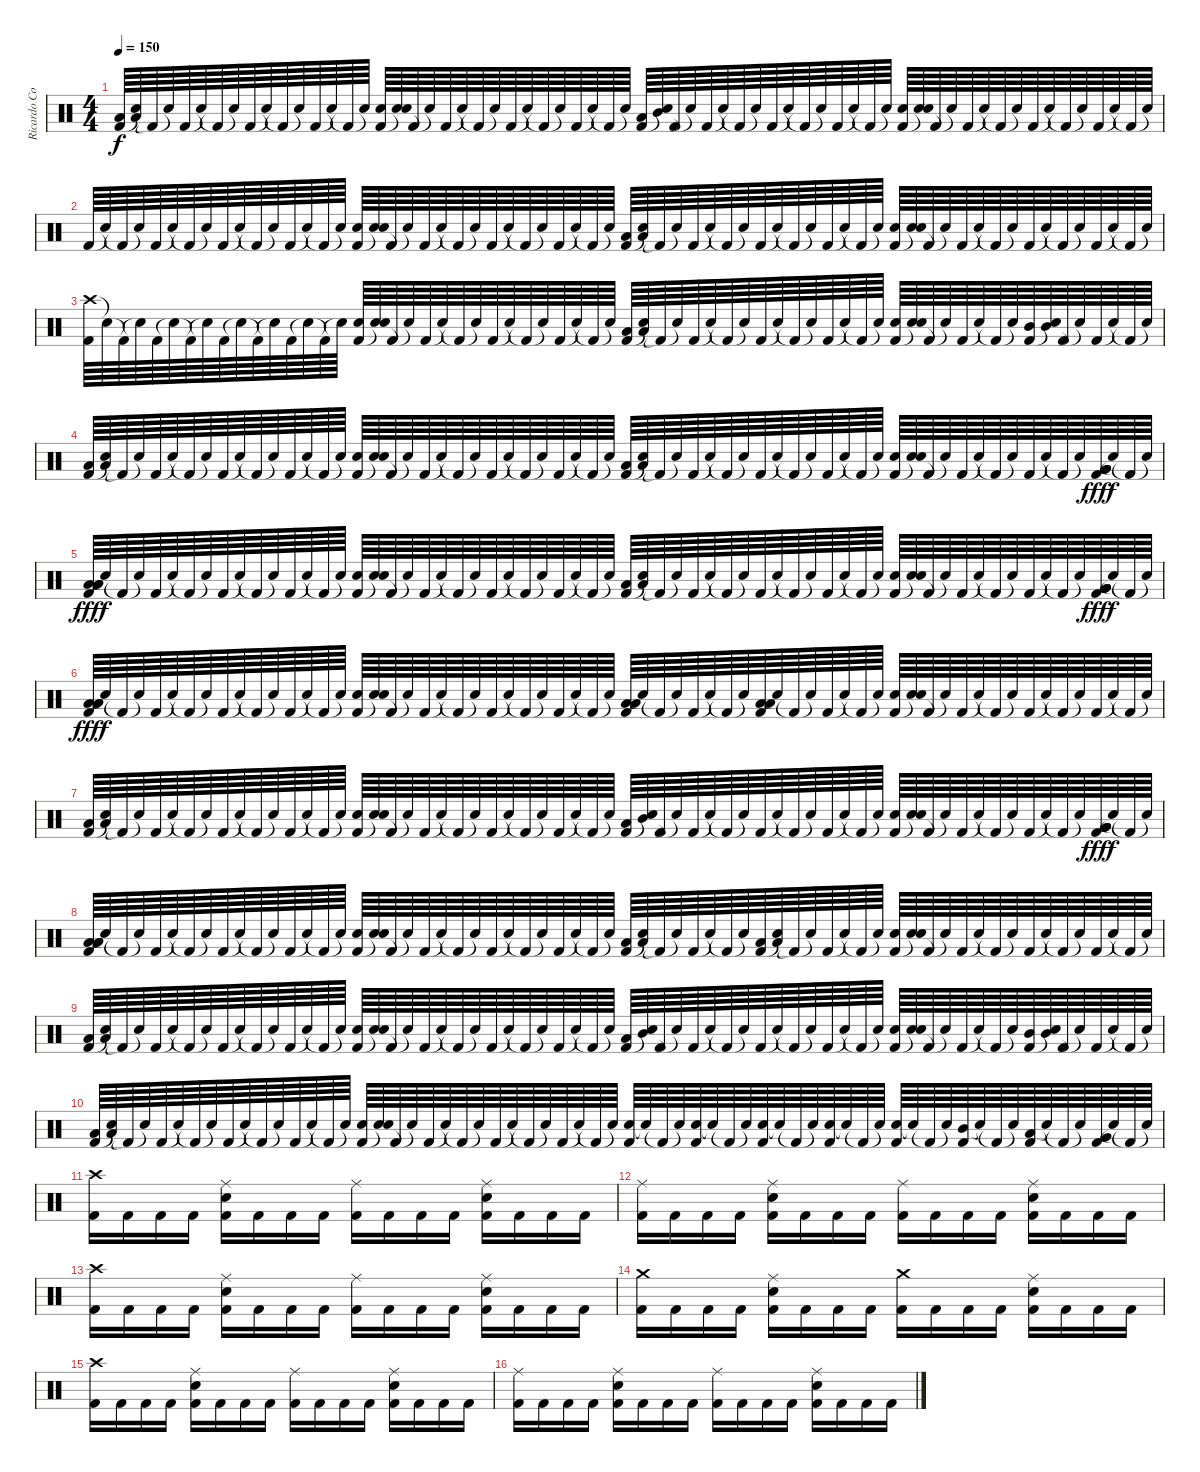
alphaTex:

\track ("Ricardo Confessori" "Ricardo Co") {instrument percussion}
\staff {score}
\articulation defaults
\ts (4 4)
\tempo 150
\clef neutral
\ks c
("Low Tom (hit)" "Kick (hit) 2").64{dy f} ("Low Tom (hit)" "Snare (hit)"{t}).64 "Kick (hit) 2"{t}.64 "Snare (hit)"{t}.64 "Kick (hit) 2".64 "Snare (hit)"{t}.64 "Kick (hit) 2"{t}.64 "Snare (hit)"{t}.64 "Kick (hit) 2".64 "Snare (hit)"{t}.64 "Kick (hit) 2"{t}.64 "Snare (hit)"{t}.64 "Kick (hit) 2".64 "Snare (hit)"{t}.64 "Kick (hit) 2"{t}.64 "Snare (hit)"{t}.64 ("Electric Snare (hit)" "Kick (hit) 2").64 ("Electric Snare (hit)" "Snare (hit)"{t}).64 "Kick (hit) 2"{t}.64 "Snare (hit)"{t}.64 "Kick (hit) 2".64 "Snare (hit)"{t}.64 "Kick (hit) 2"{t}.64 "Snare (hit)"{t}.64 "Kick (hit) 2".64 "Snare (hit)"{t}.64 "Kick (hit) 2"{t}.64 "Snare (hit)"{t}.64 "Kick (hit) 2".64 "Snare (hit)"{t}.64 "Kick (hit) 2"{t}.64 "Snare (hit)"{t}.64 ("Low Tom (hit)" "Kick (hit) 2").64 ("Mid Tom (hit)" "Snare (hit)"{t}).64 "Kick (hit) 2"{t}.64 "Snare (hit)"{t}.64 "Kick (hit) 2".64 "Snare (hit)"{t}.64 "Kick (hit) 2"{t}.64 "Snare (hit)"{t}.64 "Kick (hit) 2".64 "Snare (hit)"{t}.64 "Kick (hit) 2"{t}.64 "Snare (hit)"{t}.64 "Kick (hit) 2".64 "Snare (hit)"{t}.64 "Kick (hit) 2"{t}.64 "Snare (hit)"{t}.64 ("Electric Snare (hit)" "Kick (hit) 2").64 ("Electric Snare (hit)" "Snare (hit)"{t}).64 "Kick (hit) 2"{t}.64 "Snare (hit)"{t}.64 "Kick (hit) 2".64 "Snare (hit)"{t}.64 "Kick (hit) 2"{t}.64 "Snare (hit)"{t}.64 "Kick (hit) 2".64 "Snare (hit)"{t}.64 "Kick (hit) 2"{t}.64 "Snare (hit)"{t}.64 "Kick (hit) 2".64 "Snare (hit)"{t}.64 "Kick (hit) 2"{t}.64 "Snare (hit)"{t}.64 |
"Kick (hit) 2".64 "Snare (hit)"{t}.64 "Kick (hit) 2"{t}.64 "Snare (hit)"{t}.64 "Kick (hit) 2".64 "Snare (hit)"{t}.64 "Kick (hit) 2"{t}.64 "Snare (hit)"{t}.64 "Kick (hit) 2".64 "Snare (hit)"{t}.64 "Kick (hit) 2"{t}.64 "Snare (hit)"{t}.64 "Kick (hit) 2".64 "Snare (hit)"{t}.64 "Kick (hit) 2"{t}.64 "Snare (hit)"{t}.64 ("Electric Snare (hit)" "Kick (hit) 2").64 ("Electric Snare (hit)" "Snare (hit)"{t}).64 "Kick (hit) 2"{t}.64 "Snare (hit)"{t}.64 "Kick (hit) 2".64 "Snare (hit)"{t}.64 "Kick (hit) 2"{t}.64 "Snare (hit)"{t}.64 "Kick (hit) 2".64 "Snare (hit)"{t}.64 "Kick (hit) 2"{t}.64 "Snare (hit)"{t}.64 "Kick (hit) 2".64 "Snare (hit)"{t}.64 "Kick (hit) 2"{t}.64 "Snare (hit)"{t}.64 ("Low Tom (hit)" "Kick (hit) 2").64 ("Low Tom (hit)" "Snare (hit)"{t}).64 "Kick (hit) 2"{t}.64 "Snare (hit)"{t}.64 "Kick (hit) 2".64 "Snare (hit)"{t}.64 "Kick (hit) 2"{t}.64 "Snare (hit)"{t}.64 "Kick (hit) 2".64 "Snare (hit)"{t}.64 "Kick (hit) 2"{t}.64 "Snare (hit)"{t}.64 "Kick (hit) 2".64 "Snare (hit)"{t}.64 "Kick (hit) 2"{t}.64 "Snare (hit)"{t}.64 ("Electric Snare (hit)" "Kick (hit) 2").64 ("Electric Snare (hit)" "Snare (hit)"{t}).64 "Kick (hit) 2"{t}.64 "Snare (hit)"{t}.64 "Kick (hit) 2".64 "Snare (hit)"{t}.64 "Kick (hit) 2"{t}.64 "Snare (hit)"{t}.64 "Kick (hit) 2".64 "Snare (hit)"{t}.64 "Kick (hit) 2"{t}.64 "Snare (hit)"{t}.64 "Kick (hit) 2".64 "Snare (hit)"{t}.64 "Kick (hit) 2"{t}.64 "Snare (hit)"{t}.64 |
("Crash high (hit)" "Kick (hit) 2").64 "Snare (hit)"{t}.64 "Kick (hit) 2"{t}.64 "Snare (hit)"{t}.64 "Kick (hit) 2".64 "Snare (hit)"{t}.64 "Kick (hit) 2"{t}.64 "Snare (hit)"{t}.64 "Kick (hit) 2".64 "Snare (hit)"{t}.64 "Kick (hit) 2"{t}.64 "Snare (hit)"{t}.64 "Kick (hit) 2".64 "Snare (hit)"{t}.64 "Kick (hit) 2"{t}.64 "Snare (hit)"{t}.64 ("Electric Snare (hit)" "Kick (hit) 2").64 ("Electric Snare (hit)" "Snare (hit)"{t}).64 "Kick (hit) 2"{t}.64 "Snare (hit)"{t}.64 "Kick (hit) 2".64 "Snare (hit)"{t}.64 "Kick (hit) 2"{t}.64 "Snare (hit)"{t}.64 "Kick (hit) 2".64 "Snare (hit)"{t}.64 "Kick (hit) 2"{t}.64 "Snare (hit)"{t}.64 "Kick (hit) 2".64 "Snare (hit)"{t}.64 "Kick (hit) 2"{t}.64 "Snare (hit)"{t}.64 ("Low Tom (hit)" "Kick (hit) 2").64 ("Low Tom (hit)" "Snare (hit)"{t}).64 "Kick (hit) 2"{t}.64 "Snare (hit)"{t}.64 "Kick (hit) 2".64 "Snare (hit)"{t}.64 "Kick (hit) 2"{t}.64 "Snare (hit)"{t}.64 "Kick (hit) 2".64 "Snare (hit)"{t}.64 "Kick (hit) 2"{t}.64 "Snare (hit)"{t}.64 "Kick (hit) 2".64 "Snare (hit)"{t}.64 "Kick (hit) 2"{t}.64 "Snare (hit)"{t}.64 ("Electric Snare (hit)" "Kick (hit) 2").64 ("Electric Snare (hit)" "Snare (hit)"{t}).64 "Kick (hit) 2"{t}.64 "Snare (hit)"{t}.64 "Kick (hit) 2".64 "Snare (hit)"{t}.64 "Kick (hit) 2"{t}.64 "Snare (hit)"{t}.64 ("Mid Tom (hit)" "Kick (hit) 2").64 ("Mid Tom (hit)" "Snare (hit)"{t}).64 "Kick (hit) 2"{t}.64 "Snare (hit)"{t}.64 "Kick (hit) 2".64 "Snare (hit)"{t}.64 "Kick (hit) 2"{t}.64 "Snare (hit)"{t}.64 |
("Low Tom (hit)" "Kick (hit) 2").64 ("Low Tom (hit)" "Snare (hit)"{t}).64 "Kick (hit) 2"{t}.64 "Snare (hit)"{t}.64 "Kick (hit) 2".64 "Snare (hit)"{t}.64 "Kick (hit) 2"{t}.64 "Snare (hit)"{t}.64 "Kick (hit) 2".64 "Snare (hit)"{t}.64 "Kick (hit) 2"{t}.64 "Snare (hit)"{t}.64 "Kick (hit) 2".64 "Snare (hit)"{t}.64 "Kick (hit) 2"{t}.64 "Snare (hit)"{t}.64 ("Electric Snare (hit)" "Kick (hit) 2").64 ("Electric Snare (hit)" "Snare (hit)"{t}).64 "Kick (hit) 2"{t}.64 "Snare (hit)"{t}.64 "Kick (hit) 2".64 "Snare (hit)"{t}.64 "Kick (hit) 2"{t}.64 "Snare (hit)"{t}.64 "Kick (hit) 2".64 "Snare (hit)"{t}.64 "Kick (hit) 2"{t}.64 "Snare (hit)"{t}.64 "Kick (hit) 2".64 "Snare (hit)"{t}.64 "Kick (hit) 2"{t}.64 "Snare (hit)"{t}.64 ("Low Tom (hit)" "Kick (hit) 2").64 ("Low Tom (hit)" "Snare (hit)"{t}).64 "Kick (hit) 2"{t}.64 "Snare (hit)"{t}.64 "Kick (hit) 2".64 "Snare (hit)"{t}.64 "Kick (hit) 2"{t}.64 "Snare (hit)"{t}.64 "Kick (hit) 2".64 "Snare (hit)"{t}.64 "Kick (hit) 2"{t}.64 "Snare (hit)"{t}.64 "Kick (hit) 2".64 "Snare (hit)"{t}.64 "Kick (hit) 2"{t}.64 "Snare (hit)"{t}.64 ("Electric Snare (hit)" "Kick (hit) 2").64 ("Electric Snare (hit)" "Snare (hit)"{t}).64 "Kick (hit) 2"{t}.64 "Snare (hit)"{t}.64 "Kick (hit) 2".64 "Snare (hit)"{t}.64 "Kick (hit) 2"{t}.64 "Snare (hit)"{t}.64 "Kick (hit) 2".64 "Snare (hit)"{t}.64 "Kick (hit) 2"{t}.64 "Snare (hit)"{t}.64 ("Very Low Tom (hit)" "Very Low Tom (hit)" "Very Low Tom (hit)" "Kick (hit) 2").64{dy fff} "Snare (hit)"{t}.64{dy f} "Kick (hit) 2"{t}.64 "Snare (hit)"{t}.64 |
("Low Floor Tom (hit)" "Low Floor Tom (hit)" "Low Floor Tom (hit)" "Kick (hit) 2").64{dy fff} "Snare (hit)"{t}.64{dy f} "Kick (hit) 2"{t}.64 "Snare (hit)"{t}.64 "Kick (hit) 2".64 "Snare (hit)"{t}.64 "Kick (hit) 2"{t}.64 "Snare (hit)"{t}.64 "Kick (hit) 2".64 "Snare (hit)"{t}.64 "Kick (hit) 2"{t}.64 "Snare (hit)"{t}.64 "Kick (hit) 2".64 "Snare (hit)"{t}.64 "Kick (hit) 2"{t}.64 "Snare (hit)"{t}.64 ("Electric Snare (hit)" "Kick (hit) 2").64 ("Electric Snare (hit)" "Snare (hit)"{t}).64 "Kick (hit) 2"{t}.64 "Snare (hit)"{t}.64 "Kick (hit) 2".64 "Snare (hit)"{t}.64 "Kick (hit) 2"{t}.64 "Snare (hit)"{t}.64 "Kick (hit) 2".64 "Snare (hit)"{t}.64 "Kick (hit) 2"{t}.64 "Snare (hit)"{t}.64 "Kick (hit) 2".64 "Snare (hit)"{t}.64 "Kick (hit) 2"{t}.64 "Snare (hit)"{t}.64 ("Low Tom (hit)" "Kick (hit) 2").64 ("Low Tom (hit)" "Snare (hit)"{t}).64 "Kick (hit) 2"{t}.64 "Snare (hit)"{t}.64 "Kick (hit) 2".64 "Snare (hit)"{t}.64 "Kick (hit) 2"{t}.64 "Snare (hit)"{t}.64 "Kick (hit) 2".64 "Snare (hit)"{t}.64 "Kick (hit) 2"{t}.64 "Snare (hit)"{t}.64 "Kick (hit) 2".64 "Snare (hit)"{t}.64 "Kick (hit) 2"{t}.64 "Snare (hit)"{t}.64 ("Electric Snare (hit)" "Kick (hit) 2").64 ("Electric Snare (hit)" "Snare (hit)"{t}).64 "Kick (hit) 2"{t}.64 "Snare (hit)"{t}.64 "Kick (hit) 2".64 "Snare (hit)"{t}.64 "Kick (hit) 2"{t}.64 "Snare (hit)"{t}.64 "Kick (hit) 2".64 "Snare (hit)"{t}.64 "Kick (hit) 2"{t}.64 "Snare (hit)"{t}.64 ("Very Low Tom (hit)" "Very Low Tom (hit)" "Very Low Tom (hit)" "Kick (hit) 2").64{dy fff} "Snare (hit)"{t}.64{dy f} "Kick (hit) 2"{t}.64 "Snare (hit)"{t}.64 |
("Low Floor Tom (hit)" "Low Floor Tom (hit)" "Low Floor Tom (hit)" "Kick (hit) 2").64{dy fff} "Snare (hit)"{t}.64{dy f} "Kick (hit) 2"{t}.64 "Snare (hit)"{t}.64 "Kick (hit) 2".64 "Snare (hit)"{t}.64 "Kick (hit) 2"{t}.64 "Snare (hit)"{t}.64 "Kick (hit) 2".64 "Snare (hit)"{t}.64 "Kick (hit) 2"{t}.64 "Snare (hit)"{t}.64 "Kick (hit) 2".64 "Snare (hit)"{t}.64 "Kick (hit) 2"{t}.64 "Snare (hit)"{t}.64 ("Electric Snare (hit)" "Kick (hit) 2").64 ("Electric Snare (hit)" "Snare (hit)"{t}).64 "Kick (hit) 2"{t}.64 "Snare (hit)"{t}.64 "Kick (hit) 2".64 "Snare (hit)"{t}.64 "Kick (hit) 2"{t}.64 "Snare (hit)"{t}.64 "Kick (hit) 2".64 "Snare (hit)"{t}.64 "Kick (hit) 2"{t}.64 "Snare (hit)"{t}.64 "Kick (hit) 2".64 "Snare (hit)"{t}.64 "Kick (hit) 2"{t}.64 "Snare (hit)"{t}.64 ("Low Tom (hit)" "Low Tom (hit)" "Kick (hit) 2").64 "Snare (hit)"{t}.64 "Kick (hit) 2"{t}.64 "Snare (hit)"{t}.64 "Kick (hit) 2".64 "Snare (hit)"{t}.64 "Kick (hit) 2"{t}.64 "Snare (hit)"{t}.64 ("Low Tom (hit)" "Low Tom (hit)" "Kick (hit) 2").64 "Snare (hit)"{t}.64 "Kick (hit) 2"{t}.64 "Snare (hit)"{t}.64 "Kick (hit) 2".64 "Snare (hit)"{t}.64 "Kick (hit) 2"{t}.64 "Snare (hit)"{t}.64 ("Electric Snare (hit)" "Kick (hit) 2").64 ("Electric Snare (hit)" "Snare (hit)"{t}).64 "Kick (hit) 2"{t}.64 "Snare (hit)"{t}.64 "Kick (hit) 2".64 "Snare (hit)"{t}.64 "Kick (hit) 2"{t}.64 "Snare (hit)"{t}.64 "Kick (hit) 2".64 "Snare (hit)"{t}.64 "Kick (hit) 2"{t}.64 "Snare (hit)"{t}.64 "Kick (hit) 2".64 "Snare (hit)"{t}.64 "Kick (hit) 2"{t}.64 "Snare (hit)"{t}.64 |
("Low Tom (hit)" "Kick (hit) 2").64 ("Low Tom (hit)" "Snare (hit)"{t}).64 "Kick (hit) 2"{t}.64 "Snare (hit)"{t}.64 "Kick (hit) 2".64 "Snare (hit)"{t}.64 "Kick (hit) 2"{t}.64 "Snare (hit)"{t}.64 "Kick (hit) 2".64 "Snare (hit)"{t}.64 "Kick (hit) 2"{t}.64 "Snare (hit)"{t}.64 "Kick (hit) 2".64 "Snare (hit)"{t}.64 "Kick (hit) 2"{t}.64 "Snare (hit)"{t}.64 ("Electric Snare (hit)" "Kick (hit) 2").64 ("Electric Snare (hit)" "Snare (hit)"{t}).64 "Kick (hit) 2"{t}.64 "Snare (hit)"{t}.64 "Kick (hit) 2".64 "Snare (hit)"{t}.64 "Kick (hit) 2"{t}.64 "Snare (hit)"{t}.64 "Kick (hit) 2".64 "Snare (hit)"{t}.64 "Kick (hit) 2"{t}.64 "Snare (hit)"{t}.64 "Kick (hit) 2".64 "Snare (hit)"{t}.64 "Kick (hit) 2"{t}.64 "Snare (hit)"{t}.64 ("Low Tom (hit)" "Kick (hit) 2").64 ("Mid Tom (hit)" "Snare (hit)"{t}).64 "Kick (hit) 2"{t}.64 "Snare (hit)"{t}.64 "Kick (hit) 2".64 "Snare (hit)"{t}.64 "Kick (hit) 2"{t}.64 "Snare (hit)"{t}.64 "Kick (hit) 2".64 "Snare (hit)"{t}.64 "Kick (hit) 2"{t}.64 "Snare (hit)"{t}.64 "Kick (hit) 2".64 "Snare (hit)"{t}.64 "Kick (hit) 2"{t}.64 "Snare (hit)"{t}.64 ("Electric Snare (hit)" "Kick (hit) 2").64 ("Electric Snare (hit)" "Snare (hit)"{t}).64 "Kick (hit) 2"{t}.64 "Snare (hit)"{t}.64 "Kick (hit) 2".64 "Snare (hit)"{t}.64 "Kick (hit) 2"{t}.64 "Snare (hit)"{t}.64 "Kick (hit) 2".64 "Snare (hit)"{t}.64 "Kick (hit) 2"{t}.64 "Snare (hit)"{t}.64 ("Very Low Tom (hit)" "Very Low Tom (hit)" "Very Low Tom (hit)" "Kick (hit) 2").64{dy fff} "Snare (hit)"{t}.64{dy f} "Kick (hit) 2"{t}.64 "Snare (hit)"{t}.64 |
("Low Floor Tom (hit)" "Low Floor Tom (hit)" "Low Floor Tom (hit)" "Kick (hit) 2").64 "Snare (hit)"{t}.64 "Kick (hit) 2"{t}.64 "Snare (hit)"{t}.64 "Kick (hit) 2".64 "Snare (hit)"{t}.64 "Kick (hit) 2"{t}.64 "Snare (hit)"{t}.64 "Kick (hit) 2".64 "Snare (hit)"{t}.64 "Kick (hit) 2"{t}.64 "Snare (hit)"{t}.64 "Kick (hit) 2".64 "Snare (hit)"{t}.64 "Kick (hit) 2"{t}.64 "Snare (hit)"{t}.64 ("Electric Snare (hit)" "Kick (hit) 2").64 ("Electric Snare (hit)" "Snare (hit)"{t}).64 "Kick (hit) 2"{t}.64 "Snare (hit)"{t}.64 "Kick (hit) 2".64 "Snare (hit)"{t}.64 "Kick (hit) 2"{t}.64 "Snare (hit)"{t}.64 "Kick (hit) 2".64 "Snare (hit)"{t}.64 "Kick (hit) 2"{t}.64 "Snare (hit)"{t}.64 "Kick (hit) 2".64 "Snare (hit)"{t}.64 "Kick (hit) 2"{t}.64 "Snare (hit)"{t}.64 ("Low Tom (hit)" "Kick (hit) 2").64 ("Low Tom (hit)" "Snare (hit)"{t}).64 "Kick (hit) 2"{t}.64 "Snare (hit)"{t}.64 "Kick (hit) 2".64 "Snare (hit)"{t}.64 "Kick (hit) 2"{t}.64 "Snare (hit)"{t}.64 ("Low Tom (hit)" "Kick (hit) 2").64 ("Low Tom (hit)" "Snare (hit)"{t}).64 "Kick (hit) 2"{t}.64 "Snare (hit)"{t}.64 "Kick (hit) 2".64 "Snare (hit)"{t}.64 "Kick (hit) 2"{t}.64 "Snare (hit)"{t}.64 ("Electric Snare (hit)" "Kick (hit) 2").64 ("Electric Snare (hit)" "Snare (hit)"{t}).64 "Kick (hit) 2"{t}.64 "Snare (hit)"{t}.64 "Kick (hit) 2".64 "Snare (hit)"{t}.64 "Kick (hit) 2"{t}.64 "Snare (hit)"{t}.64 "Kick (hit) 2".64 "Snare (hit)"{t}.64 "Kick (hit) 2"{t}.64 "Snare (hit)"{t}.64 "Kick (hit) 2".64 "Snare (hit)"{t}.64 "Kick (hit) 2"{t}.64 "Snare (hit)"{t}.64 |
("Low Tom (hit)" "Kick (hit) 2").64 ("Low Tom (hit)" "Snare (hit)"{t}).64 "Kick (hit) 2"{t}.64 "Snare (hit)"{t}.64 "Kick (hit) 2".64 "Snare (hit)"{t}.64 "Kick (hit) 2"{t}.64 "Snare (hit)"{t}.64 "Kick (hit) 2".64 "Snare (hit)"{t}.64 "Kick (hit) 2"{t}.64 "Snare (hit)"{t}.64 "Kick (hit) 2".64 "Snare (hit)"{t}.64 "Kick (hit) 2"{t}.64 "Snare (hit)"{t}.64 ("Electric Snare (hit)" "Kick (hit) 2").64 ("Electric Snare (hit)" "Snare (hit)"{t}).64 "Kick (hit) 2"{t}.64 "Snare (hit)"{t}.64 "Kick (hit) 2".64 "Snare (hit)"{t}.64 "Kick (hit) 2"{t}.64 "Snare (hit)"{t}.64 "Kick (hit) 2".64 "Snare (hit)"{t}.64 "Kick (hit) 2"{t}.64 "Snare (hit)"{t}.64 "Kick (hit) 2".64 "Snare (hit)"{t}.64 "Kick (hit) 2"{t}.64 "Snare (hit)"{t}.64 ("Low Tom (hit)" "Kick (hit) 2").64 ("Mid Tom (hit)" "Snare (hit)"{t}).64 "Kick (hit) 2"{t}.64 "Snare (hit)"{t}.64 "Kick (hit) 2".64 "Snare (hit)"{t}.64 "Kick (hit) 2"{t}.64 "Snare (hit)"{t}.64 "Kick (hit) 2".64 "Snare (hit)"{t}.64 "Kick (hit) 2"{t}.64 "Snare (hit)"{t}.64 "Kick (hit) 2".64 "Snare (hit)"{t}.64 "Kick (hit) 2"{t}.64 "Snare (hit)"{t}.64 ("Electric Snare (hit)" "Kick (hit) 2").64 ("Electric Snare (hit)" "Snare (hit)"{t}).64 "Kick (hit) 2"{t}.64 "Snare (hit)"{t}.64 "Kick (hit) 2".64 "Snare (hit)"{t}.64 "Kick (hit) 2"{t}.64 "Snare (hit)"{t}.64 ("Mid Tom (hit)" "Kick (hit) 2").64 ("Mid Tom (hit)" "Snare (hit)"{t}).64 "Kick (hit) 2"{t}.64 "Snare (hit)"{t}.64 "Kick (hit) 2".64 "Snare (hit)"{t}.64 "Kick (hit) 2"{t}.64 "Snare (hit)"{t}.64 |
("Low Tom (hit)" "Kick (hit) 2").64 ("Low Tom (hit)" "Snare (hit)"{t}).64 "Kick (hit) 2"{t}.64 "Snare (hit)"{t}.64 "Kick (hit) 2".64 "Snare (hit)"{t}.64 "Kick (hit) 2"{t}.64 "Snare (hit)"{t}.64 "Kick (hit) 2".64 "Snare (hit)"{t}.64 "Kick (hit) 2"{t}.64 "Snare (hit)"{t}.64 "Kick (hit) 2".64 "Snare (hit)"{t}.64 "Kick (hit) 2"{t}.64 "Snare (hit)"{t}.64 ("Electric Snare (hit)" "Kick (hit) 2").64 ("Electric Snare (hit)" "Snare (hit)"{t}).64 "Kick (hit) 2"{t}.64 "Snare (hit)"{t}.64 "Kick (hit) 2".64 "Snare (hit)"{t}.64 "Kick (hit) 2"{t}.64 "Snare (hit)"{t}.64 "Kick (hit) 2".64 "Snare (hit)"{t}.64 "Kick (hit) 2"{t}.64 "Snare (hit)"{t}.64 "Kick (hit) 2".64 "Snare (hit)"{t}.64 "Kick (hit) 2"{t}.64 "Snare (hit)"{t}.64 ("Electric Snare (hit)" "Kick (hit) 2").64 "Snare (hit)"{t}.64 "Kick (hit) 2"{t}.64 "Snare (hit)"{t}.64 ("Electric Snare (hit)" "Kick (hit) 2").64 "Snare (hit)"{t}.64 "Kick (hit) 2"{t}.64 "Snare (hit)"{t}.64 ("Electric Snare (hit)" "Kick (hit) 2").64 "Snare (hit)"{t}.64 "Kick (hit) 2"{t}.64 "Snare (hit)"{t}.64 ("Electric Snare (hit)" "Kick (hit) 2").64 "Snare (hit)"{t}.64 "Kick (hit) 2"{t}.64 "Snare (hit)"{t}.64 ("Electric Snare (hit)" "Kick (hit) 2").64 "Snare (hit)"{t}.64 "Kick (hit) 2"{t}.64 "Snare (hit)"{t}.64 ("Mid Tom (hit)" "Kick (hit) 2").64 "Snare (hit)"{t}.64 "Kick (hit) 2"{t}.64 "Snare (hit)"{t}.64 ("Low Tom (hit)" "Kick (hit) 2").64 "Snare (hit)"{t}.64 "Kick (hit) 2"{t}.64 "Snare (hit)"{t}.64 ("Very Low Tom (hit)" "Kick (hit) 2").64 "Snare (hit)"{t}.64 "Kick (hit) 2"{t}.64 "Snare (hit)"{t}.64 |
("Crash high (hit)" "Kick (hit) 2").16 "Kick (hit) 2".16 "Kick (hit) 2".16 "Kick (hit) 2".16 ("Ride (middle)" "Electric Snare (hit)" "Kick (hit) 2").16 "Kick (hit) 2".16 "Kick (hit) 2".16 "Kick (hit) 2".16 ("Ride (middle)" "Kick (hit) 2").16 "Kick (hit) 2".16 "Kick (hit) 2".16 "Kick (hit) 2".16 ("Ride (middle)" "Electric Snare (hit)" "Kick (hit) 2").16 "Kick (hit) 2".16 "Kick (hit) 2".16 "Kick (hit) 2".16 |
("Ride (middle)" "Kick (hit) 2").16 "Kick (hit) 2".16 "Kick (hit) 2".16 "Kick (hit) 2".16 ("Ride (middle)" "Electric Snare (hit)" "Kick (hit) 2").16 "Kick (hit) 2".16 "Kick (hit) 2".16 "Kick (hit) 2".16 ("Ride (middle)" "Kick (hit) 2").16 "Kick (hit) 2".16 "Kick (hit) 2".16 "Kick (hit) 2".16 ("Ride (middle)" "Electric Snare (hit)" "Kick (hit) 2").16 "Kick (hit) 2".16 "Kick (hit) 2".16 "Kick (hit) 2".16 |
("Crash high (hit)" "Kick (hit) 2").16 "Kick (hit) 2".16 "Kick (hit) 2".16 "Kick (hit) 2".16 ("Ride (middle)" "Electric Snare (hit)" "Kick (hit) 2").16 "Kick (hit) 2".16 "Kick (hit) 2".16 "Kick (hit) 2".16 ("Ride (middle)" "Kick (hit) 2").16 "Kick (hit) 2".16 "Kick (hit) 2".16 "Kick (hit) 2".16 ("Ride (middle)" "Electric Snare (hit)" "Kick (hit) 2").16 "Kick (hit) 2".16 "Kick (hit) 2".16 "Kick (hit) 2".16 |
("Crash medium (hit)" "Kick (hit) 2").16 "Kick (hit) 2".16 "Kick (hit) 2".16 "Kick (hit) 2".16 ("Ride (middle)" "Electric Snare (hit)" "Kick (hit) 2").16 "Kick (hit) 2".16 "Kick (hit) 2".16 "Kick (hit) 2".16 ("Crash medium (hit)" "Kick (hit) 2").16 "Kick (hit) 2".16 "Kick (hit) 2".16 "Kick (hit) 2".16 ("Ride (middle)" "Electric Snare (hit)" "Kick (hit) 2").16 "Kick (hit) 2".16 "Kick (hit) 2".16 "Kick (hit) 2".16 |
("Crash high (hit)" "Kick (hit) 2").16 "Kick (hit) 2".16 "Kick (hit) 2".16 "Kick (hit) 2".16 ("Ride (middle)" "Electric Snare (hit)" "Kick (hit) 2").16 "Kick (hit) 2".16 "Kick (hit) 2".16 "Kick (hit) 2".16 ("Ride (middle)" "Kick (hit) 2").16 "Kick (hit) 2".16 "Kick (hit) 2".16 "Kick (hit) 2".16 ("Ride (middle)" "Electric Snare (hit)" "Kick (hit) 2").16 "Kick (hit) 2".16 "Kick (hit) 2".16 "Kick (hit) 2".16 |
("Ride (middle)" "Kick (hit) 2").16 "Kick (hit) 2".16 "Kick (hit) 2".16 "Kick (hit) 2".16 ("Ride (middle)" "Electric Snare (hit)" "Kick (hit) 2").16 "Kick (hit) 2".16 "Kick (hit) 2".16 "Kick (hit) 2".16 ("Ride (middle)" "Kick (hit) 2").16 "Kick (hit) 2".16 "Kick (hit) 2".16 "Kick (hit) 2".16 ("Ride (middle)" "Electric Snare (hit)" "Kick (hit) 2").16 "Kick (hit) 2".16 "Kick (hit) 2".16 "Kick (hit) 2".16
